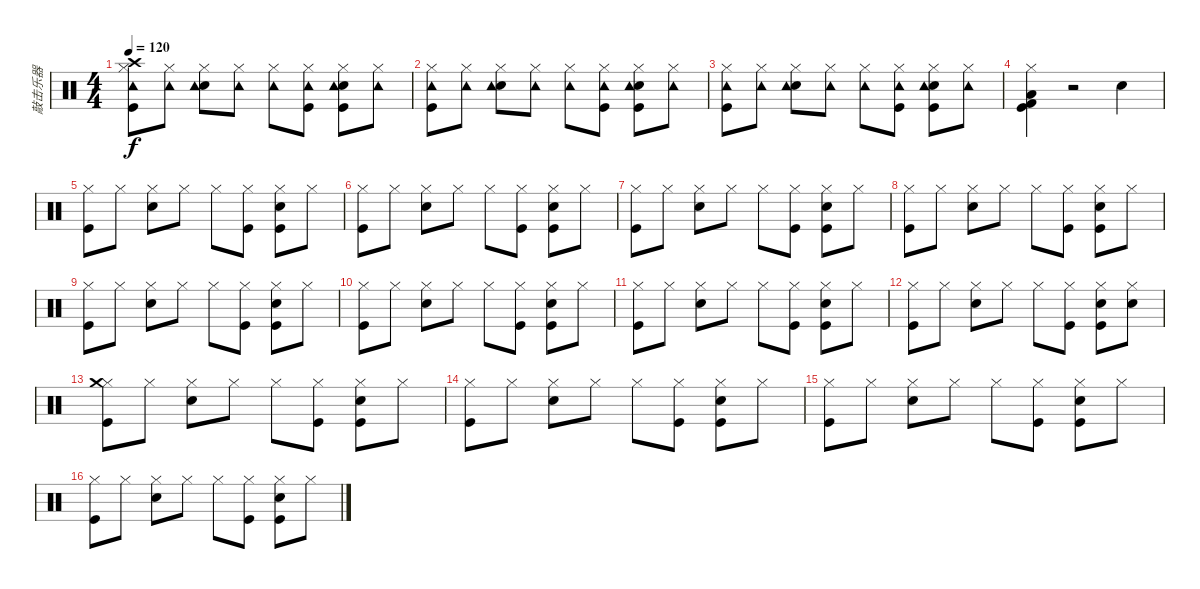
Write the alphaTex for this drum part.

\track ("敲击乐器" "敲击乐器") {instrument percussion}
\staff {score}
\articulation defaults
\ts (4 4)
\tempo 120
\clef neutral
\ks c
("Hi-Hat (closed)" "Crash high (hit)" "Kick (hit)" "Tambourine (hit)").8{dy f} ("Hi-Hat (closed)" "Tambourine (hit)").8 ("Hi-Hat (closed)" "Snare (hit) 2" "Tambourine (hit)").8 ("Hi-Hat (closed)" "Tambourine (hit)").8 ("Hi-Hat (closed)" "Tambourine (hit)").8 ("Hi-Hat (closed)" "Kick (hit)" "Tambourine (hit)").8 ("Hi-Hat (closed)" "Snare (hit) 2" "Kick (hit)" "Tambourine (hit)").8 ("Hi-Hat (closed)" "Tambourine (hit)").8 |
("Hi-Hat (closed)" "Kick (hit)" "Tambourine (hit)").8 ("Hi-Hat (closed)" "Tambourine (hit)").8 ("Hi-Hat (closed)" "Snare (hit) 2" "Tambourine (hit)").8 ("Hi-Hat (closed)" "Tambourine (hit)").8 ("Hi-Hat (closed)" "Tambourine (hit)").8 ("Hi-Hat (closed)" "Kick (hit)" "Tambourine (hit)").8 ("Hi-Hat (closed)" "Snare (hit) 2" "Kick (hit)" "Tambourine (hit)").8 ("Hi-Hat (closed)" "Tambourine (hit)").8 |
("Hi-Hat (closed)" "Kick (hit)" "Tambourine (hit)").8 ("Hi-Hat (closed)" "Tambourine (hit)").8 ("Hi-Hat (closed)" "Snare (hit) 2" "Tambourine (hit)").8 ("Hi-Hat (closed)" "Tambourine (hit)").8 ("Hi-Hat (closed)" "Tambourine (hit)").8 ("Hi-Hat (closed)" "Kick (hit)" "Tambourine (hit)").8 ("Hi-Hat (closed)" "Snare (hit) 2" "Kick (hit)" "Tambourine (hit)").8 ("Hi-Hat (closed)" "Tambourine (hit)").8 |
("Hi-Hat (closed)" "Low Tom (hit)" "Kick (hit) 2" "Kick (hit)").4 r.2 "Snare (hit) 2".4 |
("Hi-Hat (closed)" "Kick (hit)").8 "Hi-Hat (closed)".8 ("Hi-Hat (closed)" "Snare (hit) 2").8 "Hi-Hat (closed)".8 "Hi-Hat (closed)".8 ("Hi-Hat (closed)" "Kick (hit)").8 ("Hi-Hat (closed)" "Snare (hit) 2" "Kick (hit)").8 "Hi-Hat (closed)".8 |
("Hi-Hat (closed)" "Kick (hit)").8 "Hi-Hat (closed)".8 ("Hi-Hat (closed)" "Snare (hit) 2").8 "Hi-Hat (closed)".8 "Hi-Hat (closed)".8 ("Hi-Hat (closed)" "Kick (hit)").8 ("Hi-Hat (closed)" "Snare (hit) 2" "Kick (hit)").8 "Hi-Hat (closed)".8 |
("Hi-Hat (closed)" "Kick (hit)").8 "Hi-Hat (closed)".8 ("Hi-Hat (closed)" "Snare (hit) 2").8 "Hi-Hat (closed)".8 "Hi-Hat (closed)".8 ("Hi-Hat (closed)" "Kick (hit)").8 ("Hi-Hat (closed)" "Snare (hit) 2" "Kick (hit)").8 "Hi-Hat (closed)".8 |
("Hi-Hat (closed)" "Kick (hit)").8 "Hi-Hat (closed)".8 ("Hi-Hat (closed)" "Snare (hit) 2").8 "Hi-Hat (closed)".8 "Hi-Hat (closed)".8 ("Hi-Hat (closed)" "Kick (hit)").8 ("Hi-Hat (closed)" "Snare (hit) 2" "Kick (hit)").8 "Hi-Hat (closed)".8 |
("Hi-Hat (closed)" "Kick (hit)").8 "Hi-Hat (closed)".8 ("Hi-Hat (closed)" "Snare (hit) 2").8 "Hi-Hat (closed)".8 "Hi-Hat (closed)".8 ("Hi-Hat (closed)" "Kick (hit)").8 ("Hi-Hat (closed)" "Snare (hit) 2" "Kick (hit)").8 "Hi-Hat (closed)".8 |
("Hi-Hat (closed)" "Kick (hit)").8 "Hi-Hat (closed)".8 ("Hi-Hat (closed)" "Snare (hit) 2").8 "Hi-Hat (closed)".8 "Hi-Hat (closed)".8 ("Hi-Hat (closed)" "Kick (hit)").8 ("Hi-Hat (closed)" "Snare (hit) 2" "Kick (hit)").8 "Hi-Hat (closed)".8 |
("Hi-Hat (closed)" "Kick (hit)").8 "Hi-Hat (closed)".8 ("Hi-Hat (closed)" "Snare (hit) 2").8 "Hi-Hat (closed)".8 "Hi-Hat (closed)".8 ("Hi-Hat (closed)" "Kick (hit)").8 ("Hi-Hat (closed)" "Snare (hit) 2" "Kick (hit)").8 "Hi-Hat (closed)".8 |
("Hi-Hat (closed)" "Kick (hit)").8 "Hi-Hat (closed)".8 ("Hi-Hat (closed)" "Snare (hit) 2").8 "Hi-Hat (closed)".8 "Hi-Hat (closed)".8 ("Hi-Hat (closed)" "Kick (hit)").8 ("Hi-Hat (closed)" "Snare (hit) 2" "Kick (hit)").8 ("Hi-Hat (closed)" "Snare (hit) 2").8 |
("Hi-Hat (closed)" "Kick (hit)" "Crash medium (hit)").8 "Hi-Hat (closed)".8 ("Hi-Hat (closed)" "Snare (hit) 2").8 "Hi-Hat (closed)".8 "Hi-Hat (closed)".8 ("Hi-Hat (closed)" "Kick (hit)").8 ("Hi-Hat (closed)" "Snare (hit) 2" "Kick (hit)").8 "Hi-Hat (closed)".8 |
("Hi-Hat (closed)" "Kick (hit)").8 "Hi-Hat (closed)".8 ("Hi-Hat (closed)" "Snare (hit) 2").8 "Hi-Hat (closed)".8 "Hi-Hat (closed)".8 ("Hi-Hat (closed)" "Kick (hit)").8 ("Hi-Hat (closed)" "Snare (hit) 2" "Kick (hit)").8 "Hi-Hat (closed)".8 |
("Hi-Hat (closed)" "Kick (hit)").8 "Hi-Hat (closed)".8 ("Hi-Hat (closed)" "Snare (hit) 2").8 "Hi-Hat (closed)".8 "Hi-Hat (closed)".8 ("Hi-Hat (closed)" "Kick (hit)").8 ("Hi-Hat (closed)" "Snare (hit) 2" "Kick (hit)").8 "Hi-Hat (closed)".8 |
("Hi-Hat (closed)" "Kick (hit)").8 "Hi-Hat (closed)".8 ("Hi-Hat (closed)" "Snare (hit) 2").8 "Hi-Hat (closed)".8 "Hi-Hat (closed)".8 ("Hi-Hat (closed)" "Kick (hit)").8 ("Hi-Hat (closed)" "Snare (hit) 2" "Kick (hit)").8 "Hi-Hat (closed)".8
